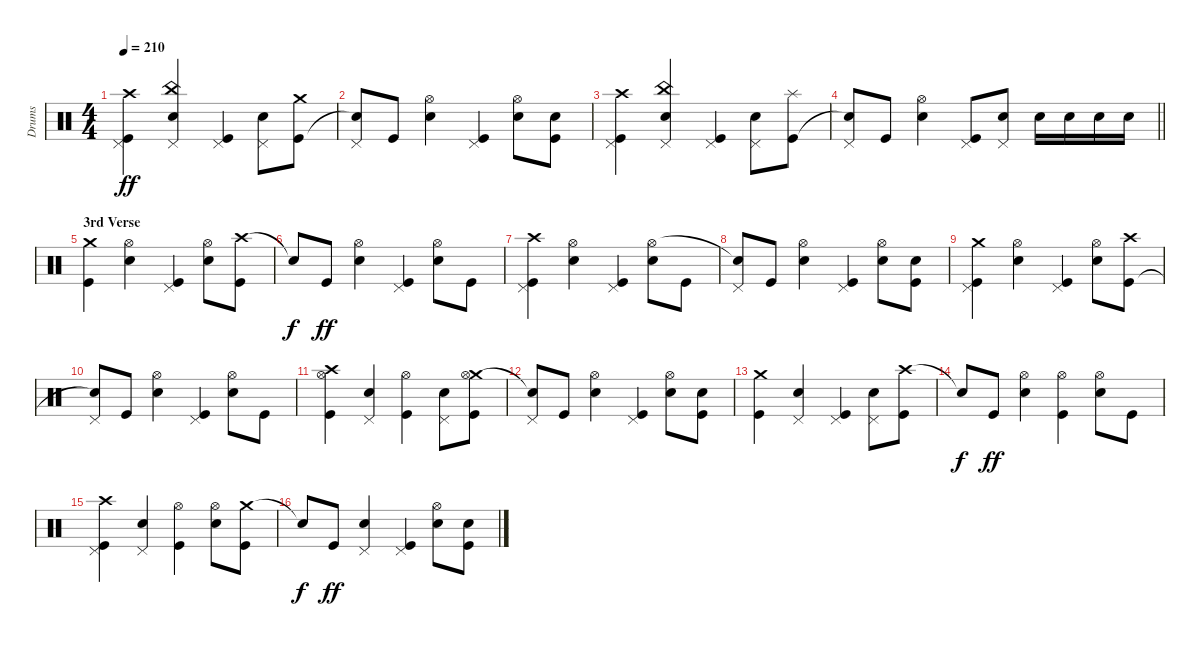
\track ("Drums" "Drums") {instrument percussion}
\staff {score}
\articulation defaults
\ts (4 4)
\tempo 210
\clef neutral
\ks c
("Crash high (hit)" "Pedal Hi-Hat (hit)" "Kick (hit)").4{dy ff} ("China (hit)" "Electric Snare (hit)" "Pedal Hi-Hat (hit)").4 ("Pedal Hi-Hat (hit)" "Kick (hit)").4 ("Electric Snare (hit)" "Pedal Hi-Hat (hit)").8 ("Crash medium (hit)" "Kick (hit)").8 |
("Pedal Hi-Hat (hit)" "Snare (hit)"{t}).8 "Kick (hit)".8 ("Electric Snare (hit)" "Hi-Hat (open)").4 ("Pedal Hi-Hat (hit)" "Kick (hit)").4 ("Electric Snare (hit)" "Hi-Hat (open)").8 ("Electric Snare (hit)" "Kick (hit)").8 |
("Crash high (hit)" "Pedal Hi-Hat (hit)" "Kick (hit)").4 ("China (hit)" "Electric Snare (hit)" "Pedal Hi-Hat (hit)").4 ("Pedal Hi-Hat (hit)" "Kick (hit)").4 ("Electric Snare (hit)" "Pedal Hi-Hat (hit)").8 ("Splash (hit)" "Kick (hit)").8 |
\barLineRight lightlight
("Pedal Hi-Hat (hit)" "Snare (hit)"{t}).8 "Kick (hit)".8 ("Electric Snare (hit)" "Hi-Hat (open)").4 ("Pedal Hi-Hat (hit)" "Kick (hit)").8 ("Electric Snare (hit)" "Pedal Hi-Hat (hit)").8 "Electric Snare (hit)".16 "Electric Snare (hit)".16 "Electric Snare (hit)".16 "Electric Snare (hit)".16 |
\section ("" "3rd Verse")
("Crash medium (hit)" "Kick (hit)").4 ("Electric Snare (hit)" "Hi-Hat (open)").4 ("Pedal Hi-Hat (hit)" "Kick (hit)").4 ("Electric Snare (hit)" "Hi-Hat (open)").8 ("Crash high (hit)" "Kick (hit)").8 |
"Snare (hit)"{t}.8{dy f} "Kick (hit)".8{dy ff} ("Electric Snare (hit)" "Hi-Hat (open)").4 ("Pedal Hi-Hat (hit)" "Kick (hit)").4 ("Electric Snare (hit)" "Hi-Hat (open)").8 "Kick (hit)".8 |
("Crash high (hit)" "Pedal Hi-Hat (hit)" "Kick (hit)").4 ("Electric Snare (hit)" "Hi-Hat (open)").4 ("Pedal Hi-Hat (hit)" "Kick (hit)").4 ("Electric Snare (hit)" "Hi-Hat (open)").8 "Kick (hit)".8 |
("Pedal Hi-Hat (hit)" "Snare (hit)"{t}).8 "Kick (hit)".8 ("Electric Snare (hit)" "Hi-Hat (open)").4 ("Pedal Hi-Hat (hit)" "Kick (hit)").4 ("Electric Snare (hit)" "Hi-Hat (open)").8 ("Electric Snare (hit)" "Kick (hit)").8 |
("Crash medium (hit)" "Pedal Hi-Hat (hit)" "Kick (hit)").4 ("Electric Snare (hit)" "Hi-Hat (open)").4 ("Pedal Hi-Hat (hit)" "Kick (hit)").4 ("Electric Snare (hit)" "Hi-Hat (open)").8 ("Crash high (hit)" "Kick (hit)").8 |
("Pedal Hi-Hat (hit)" "Snare (hit)"{t}).8 "Kick (hit)".8 ("Electric Snare (hit)" "Hi-Hat (open)").4 ("Pedal Hi-Hat (hit)" "Kick (hit)").4 ("Electric Snare (hit)" "Hi-Hat (open)").8 "Kick (hit)".8 |
("Crash high (hit)" "Hi-Hat (open)" "Kick (hit)").4 ("Electric Snare (hit)" "Pedal Hi-Hat (hit)").4 ("Hi-Hat (open)" "Kick (hit)").4 ("Electric Snare (hit)" "Pedal Hi-Hat (hit)").8 ("Crash medium (hit)" "Hi-Hat (open)" "Kick (hit)").8 |
("Pedal Hi-Hat (hit)" "Snare (hit)"{t}).8 "Kick (hit)".8 ("Electric Snare (hit)" "Hi-Hat (open)").4 ("Pedal Hi-Hat (hit)" "Kick (hit)").4 ("Electric Snare (hit)" "Hi-Hat (open)").8 ("Electric Snare (hit)" "Kick (hit)").8 |
("Crash medium (hit)" "Kick (hit)").4 ("Electric Snare (hit)" "Pedal Hi-Hat (hit)").4 ("Pedal Hi-Hat (hit)" "Kick (hit)").4 ("Electric Snare (hit)" "Pedal Hi-Hat (hit)").8 ("Crash high (hit)" "Kick (hit)").8 |
"Snare (hit)"{t}.8{dy f} "Kick (hit)".8{dy ff} ("Electric Snare (hit)" "Hi-Hat (open)").4 ("Hi-Hat (open)" "Kick (hit)").4 ("Electric Snare (hit)" "Hi-Hat (open)").8 "Kick (hit)".8 |
("Crash high (hit)" "Pedal Hi-Hat (hit)" "Kick (hit)").4 ("Electric Snare (hit)" "Pedal Hi-Hat (hit)").4 ("Hi-Hat (open)" "Kick (hit)").4 ("Electric Snare (hit)" "Hi-Hat (open)").8 ("Crash medium (hit)" "Kick (hit)").8 |
"Snare (hit)"{t}.8{dy f} "Kick (hit)".8{dy ff} ("Electric Snare (hit)" "Pedal Hi-Hat (hit)").4 ("Pedal Hi-Hat (hit)" "Kick (hit)").4 ("Electric Snare (hit)" "Hi-Hat (open)").8 ("Electric Snare (hit)" "Kick (hit)").8
